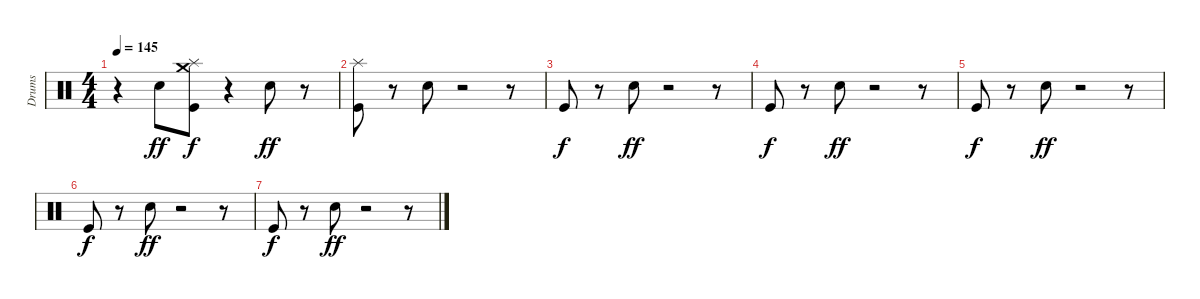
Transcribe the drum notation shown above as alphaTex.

\track ("Drums" "Drums") {instrument percussion}
\staff {score}
\articulation defaults
\ts (4 4)
\tempo 145
\clef neutral
\ks c
r.4{dy mf} "Snare (hit) 2".8{dy ff} ("Kick (hit)" "Splash (hit)" "Crash medium (hit)").8{dy f} r.4 "Snare (hit) 2".8{dy ff} r.8 |
("Kick (hit)" "Splash (hit)").8 r.8 "Snare (hit) 2".8 r.2 r.8 |
"Kick (hit)".8{dy f} r.8 "Snare (hit) 2".8{dy ff} r.2 r.8 |
"Kick (hit)".8{dy f} r.8 "Snare (hit) 2".8{dy ff} r.2 r.8 |
"Kick (hit)".8{dy f} r.8 "Snare (hit) 2".8{dy ff} r.2 r.8 |
"Kick (hit)".8{dy f} r.8 "Snare (hit) 2".8{dy ff} r.2 r.8 |
"Kick (hit)".8{dy f} r.8 "Snare (hit) 2".8{dy ff} r.2 r.8
